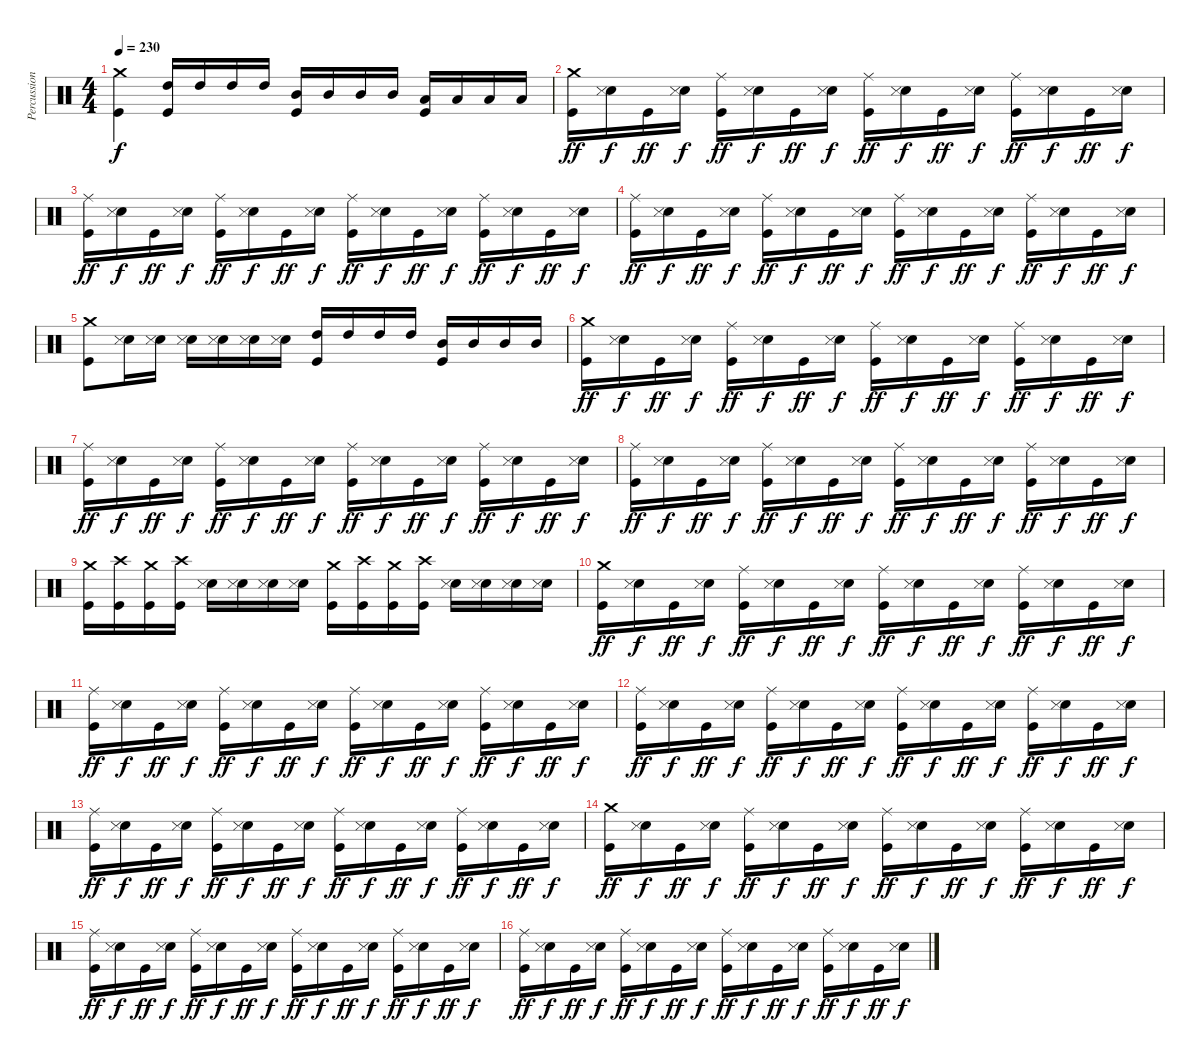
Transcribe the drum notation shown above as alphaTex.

\track ("Percussions" "Percussion") {instrument percussion}
\staff {score}
\articulation defaults
\ts (4 4)
\tempo 230
\clef neutral
\ks c
("Crash medium (hit)" "Kick (hit)").4{dy f} ("High Tom (hit)" "Kick (hit)").16 "High Tom (hit)".16 "High Tom (hit)".16 "High Tom (hit)".16 ("Mid Tom (hit)" "Kick (hit)").16 "Mid Tom (hit)".16 "Mid Tom (hit)".16 "Mid Tom (hit)".16 ("Low Tom (hit)" "Kick (hit)").16 "Low Tom (hit)".16 "Low Tom (hit)".16 "Low Tom (hit)".16 |
("Crash medium (hit)" "Kick (hit)").16{dy ff} ("Electric Snare (hit)" "Snare (side stick) 3").16{dy f} "Kick (hit)".16{dy ff} ("Electric Snare (hit)" "Snare (side stick) 3").16{dy f} ("Ride (middle)" "Kick (hit)").16{dy ff} ("Electric Snare (hit)" "Snare (side stick) 3").16{dy f} "Kick (hit)".16{dy ff} ("Electric Snare (hit)" "Snare (side stick) 3").16{dy f} ("Ride (middle)" "Kick (hit)").16{dy ff} ("Electric Snare (hit)" "Snare (side stick) 3").16{dy f} "Kick (hit)".16{dy ff} ("Electric Snare (hit)" "Snare (side stick) 3").16{dy f} ("Ride (middle)" "Kick (hit)").16{dy ff} ("Electric Snare (hit)" "Snare (side stick) 3").16{dy f} "Kick (hit)".16{dy ff} ("Electric Snare (hit)" "Snare (side stick) 3").16{dy f} |
("Ride (middle)" "Kick (hit)").16{dy ff} ("Electric Snare (hit)" "Snare (side stick) 3").16{dy f} "Kick (hit)".16{dy ff} ("Electric Snare (hit)" "Snare (side stick) 3").16{dy f} ("Ride (middle)" "Kick (hit)").16{dy ff} ("Electric Snare (hit)" "Snare (side stick) 3").16{dy f} "Kick (hit)".16{dy ff} ("Electric Snare (hit)" "Snare (side stick) 3").16{dy f} ("Ride (middle)" "Kick (hit)").16{dy ff} ("Electric Snare (hit)" "Snare (side stick) 3").16{dy f} "Kick (hit)".16{dy ff} ("Electric Snare (hit)" "Snare (side stick) 3").16{dy f} ("Ride (middle)" "Kick (hit)").16{dy ff} ("Electric Snare (hit)" "Snare (side stick) 3").16{dy f} "Kick (hit)".16{dy ff} ("Electric Snare (hit)" "Snare (side stick) 3").16{dy f} |
("Ride (middle)" "Kick (hit)").16{dy ff} ("Electric Snare (hit)" "Snare (side stick) 3").16{dy f} "Kick (hit)".16{dy ff} ("Electric Snare (hit)" "Snare (side stick) 3").16{dy f} ("Ride (middle)" "Kick (hit)").16{dy ff} ("Electric Snare (hit)" "Snare (side stick) 3").16{dy f} "Kick (hit)".16{dy ff} ("Electric Snare (hit)" "Snare (side stick) 3").16{dy f} ("Ride (middle)" "Kick (hit)").16{dy ff} ("Electric Snare (hit)" "Snare (side stick) 3").16{dy f} "Kick (hit)".16{dy ff} ("Electric Snare (hit)" "Snare (side stick) 3").16{dy f} ("Ride (middle)" "Kick (hit)").16{dy ff} ("Electric Snare (hit)" "Snare (side stick) 3").16{dy f} "Kick (hit)".16{dy ff} ("Electric Snare (hit)" "Snare (side stick) 3").16{dy f} |
("Crash medium (hit)" "Kick (hit)").8 ("Electric Snare (hit)" "Snare (side stick) 3").16 ("Electric Snare (hit)" "Snare (side stick) 3").16 ("Electric Snare (hit)" "Snare (side stick) 3").16 ("Electric Snare (hit)" "Snare (side stick) 3").16 ("Electric Snare (hit)" "Snare (side stick) 3").16 ("Electric Snare (hit)" "Snare (side stick) 3").16 ("High Tom (hit)" "Kick (hit)").16 "High Tom (hit)".16 "High Tom (hit)".16 "High Tom (hit)".16 ("Mid Tom (hit)" "Kick (hit)").16 "Mid Tom (hit)".16 "Mid Tom (hit)".16 "Mid Tom (hit)".16 |
("Crash medium (hit)" "Kick (hit)").16{dy ff} ("Electric Snare (hit)" "Snare (side stick) 3").16{dy f} "Kick (hit)".16{dy ff} ("Electric Snare (hit)" "Snare (side stick) 3").16{dy f} ("Ride (middle)" "Kick (hit)").16{dy ff} ("Electric Snare (hit)" "Snare (side stick) 3").16{dy f} "Kick (hit)".16{dy ff} ("Electric Snare (hit)" "Snare (side stick) 3").16{dy f} ("Ride (middle)" "Kick (hit)").16{dy ff} ("Electric Snare (hit)" "Snare (side stick) 3").16{dy f} "Kick (hit)".16{dy ff} ("Electric Snare (hit)" "Snare (side stick) 3").16{dy f} ("Ride (middle)" "Kick (hit)").16{dy ff} ("Electric Snare (hit)" "Snare (side stick) 3").16{dy f} "Kick (hit)".16{dy ff} ("Electric Snare (hit)" "Snare (side stick) 3").16{dy f} |
("Ride (middle)" "Kick (hit)").16{dy ff} ("Electric Snare (hit)" "Snare (side stick) 3").16{dy f} "Kick (hit)".16{dy ff} ("Electric Snare (hit)" "Snare (side stick) 3").16{dy f} ("Ride (middle)" "Kick (hit)").16{dy ff} ("Electric Snare (hit)" "Snare (side stick) 3").16{dy f} "Kick (hit)".16{dy ff} ("Electric Snare (hit)" "Snare (side stick) 3").16{dy f} ("Ride (middle)" "Kick (hit)").16{dy ff} ("Electric Snare (hit)" "Snare (side stick) 3").16{dy f} "Kick (hit)".16{dy ff} ("Electric Snare (hit)" "Snare (side stick) 3").16{dy f} ("Ride (middle)" "Kick (hit)").16{dy ff} ("Electric Snare (hit)" "Snare (side stick) 3").16{dy f} "Kick (hit)".16{dy ff} ("Electric Snare (hit)" "Snare (side stick) 3").16{dy f} |
("Ride (middle)" "Kick (hit)").16{dy ff} ("Electric Snare (hit)" "Snare (side stick) 3").16{dy f} "Kick (hit)".16{dy ff} ("Electric Snare (hit)" "Snare (side stick) 3").16{dy f} ("Ride (middle)" "Kick (hit)").16{dy ff} ("Electric Snare (hit)" "Snare (side stick) 3").16{dy f} "Kick (hit)".16{dy ff} ("Electric Snare (hit)" "Snare (side stick) 3").16{dy f} ("Ride (middle)" "Kick (hit)").16{dy ff} ("Electric Snare (hit)" "Snare (side stick) 3").16{dy f} "Kick (hit)".16{dy ff} ("Electric Snare (hit)" "Snare (side stick) 3").16{dy f} ("Ride (middle)" "Kick (hit)").16{dy ff} ("Electric Snare (hit)" "Snare (side stick) 3").16{dy f} "Kick (hit)".16{dy ff} ("Electric Snare (hit)" "Snare (side stick) 3").16{dy f} |
("Crash medium (hit)" "Kick (hit)").16 ("Crash high (hit)" "Kick (hit)").16 ("Crash medium (hit)" "Kick (hit)").16 ("Crash high (hit)" "Kick (hit)").16 ("Electric Snare (hit)" "Snare (side stick) 3").16 ("Electric Snare (hit)" "Snare (side stick) 3").16 ("Electric Snare (hit)" "Snare (side stick) 3").16 ("Electric Snare (hit)" "Snare (side stick) 3").16 ("Crash medium (hit)" "Kick (hit)").16 ("Crash high (hit)" "Kick (hit)").16 ("Crash medium (hit)" "Kick (hit)").16 ("Crash high (hit)" "Kick (hit)").16 ("Electric Snare (hit)" "Snare (side stick) 3").16 ("Electric Snare (hit)" "Snare (side stick) 3").16 ("Electric Snare (hit)" "Snare (side stick) 3").16 ("Electric Snare (hit)" "Snare (side stick) 3").16 |
("Crash medium (hit)" "Kick (hit)").16{dy ff} ("Electric Snare (hit)" "Snare (side stick) 3").16{dy f} "Kick (hit)".16{dy ff} ("Electric Snare (hit)" "Snare (side stick) 3").16{dy f} ("Ride (middle)" "Kick (hit)").16{dy ff} ("Electric Snare (hit)" "Snare (side stick) 3").16{dy f} "Kick (hit)".16{dy ff} ("Electric Snare (hit)" "Snare (side stick) 3").16{dy f} ("Ride (middle)" "Kick (hit)").16{dy ff} ("Electric Snare (hit)" "Snare (side stick) 3").16{dy f} "Kick (hit)".16{dy ff} ("Electric Snare (hit)" "Snare (side stick) 3").16{dy f} ("Ride (middle)" "Kick (hit)").16{dy ff} ("Electric Snare (hit)" "Snare (side stick) 3").16{dy f} "Kick (hit)".16{dy ff} ("Electric Snare (hit)" "Snare (side stick) 3").16{dy f} |
("Ride (middle)" "Kick (hit)").16{dy ff} ("Electric Snare (hit)" "Snare (side stick) 3").16{dy f} "Kick (hit)".16{dy ff} ("Electric Snare (hit)" "Snare (side stick) 3").16{dy f} ("Ride (middle)" "Kick (hit)").16{dy ff} ("Electric Snare (hit)" "Snare (side stick) 3").16{dy f} "Kick (hit)".16{dy ff} ("Electric Snare (hit)" "Snare (side stick) 3").16{dy f} ("Ride (middle)" "Kick (hit)").16{dy ff} ("Electric Snare (hit)" "Snare (side stick) 3").16{dy f} "Kick (hit)".16{dy ff} ("Electric Snare (hit)" "Snare (side stick) 3").16{dy f} ("Ride (middle)" "Kick (hit)").16{dy ff} ("Electric Snare (hit)" "Snare (side stick) 3").16{dy f} "Kick (hit)".16{dy ff} ("Electric Snare (hit)" "Snare (side stick) 3").16{dy f} |
("Ride (middle)" "Kick (hit)").16{dy ff} ("Electric Snare (hit)" "Snare (side stick) 3").16{dy f} "Kick (hit)".16{dy ff} ("Electric Snare (hit)" "Snare (side stick) 3").16{dy f} ("Ride (middle)" "Kick (hit)").16{dy ff} ("Electric Snare (hit)" "Snare (side stick) 3").16{dy f} "Kick (hit)".16{dy ff} ("Electric Snare (hit)" "Snare (side stick) 3").16{dy f} ("Ride (middle)" "Kick (hit)").16{dy ff} ("Electric Snare (hit)" "Snare (side stick) 3").16{dy f} "Kick (hit)".16{dy ff} ("Electric Snare (hit)" "Snare (side stick) 3").16{dy f} ("Ride (middle)" "Kick (hit)").16{dy ff} ("Electric Snare (hit)" "Snare (side stick) 3").16{dy f} "Kick (hit)".16{dy ff} ("Electric Snare (hit)" "Snare (side stick) 3").16{dy f} |
("Ride (middle)" "Kick (hit)").16{dy ff} ("Electric Snare (hit)" "Snare (side stick) 3").16{dy f} "Kick (hit)".16{dy ff} ("Electric Snare (hit)" "Snare (side stick) 3").16{dy f} ("Ride (middle)" "Kick (hit)").16{dy ff} ("Electric Snare (hit)" "Snare (side stick) 3").16{dy f} "Kick (hit)".16{dy ff} ("Electric Snare (hit)" "Snare (side stick) 3").16{dy f} ("Ride (middle)" "Kick (hit)").16{dy ff} ("Electric Snare (hit)" "Snare (side stick) 3").16{dy f} "Kick (hit)".16{dy ff} ("Electric Snare (hit)" "Snare (side stick) 3").16{dy f} ("Ride (middle)" "Kick (hit)").16{dy ff} ("Electric Snare (hit)" "Snare (side stick) 3").16{dy f} "Kick (hit)".16{dy ff} ("Electric Snare (hit)" "Snare (side stick) 3").16{dy f} |
("Crash medium (hit)" "Kick (hit)").16{dy ff} ("Electric Snare (hit)" "Snare (side stick) 3").16{dy f} "Kick (hit)".16{dy ff} ("Electric Snare (hit)" "Snare (side stick) 3").16{dy f} ("Ride (middle)" "Kick (hit)").16{dy ff} ("Electric Snare (hit)" "Snare (side stick) 3").16{dy f} "Kick (hit)".16{dy ff} ("Electric Snare (hit)" "Snare (side stick) 3").16{dy f} ("Ride (middle)" "Kick (hit)").16{dy ff} ("Electric Snare (hit)" "Snare (side stick) 3").16{dy f} "Kick (hit)".16{dy ff} ("Electric Snare (hit)" "Snare (side stick) 3").16{dy f} ("Ride (middle)" "Kick (hit)").16{dy ff} ("Electric Snare (hit)" "Snare (side stick) 3").16{dy f} "Kick (hit)".16{dy ff} ("Electric Snare (hit)" "Snare (side stick) 3").16{dy f} |
("Ride (middle)" "Kick (hit)").16{dy ff} ("Electric Snare (hit)" "Snare (side stick) 3").16{dy f} "Kick (hit)".16{dy ff} ("Electric Snare (hit)" "Snare (side stick) 3").16{dy f} ("Ride (middle)" "Kick (hit)").16{dy ff} ("Electric Snare (hit)" "Snare (side stick) 3").16{dy f} "Kick (hit)".16{dy ff} ("Electric Snare (hit)" "Snare (side stick) 3").16{dy f} ("Ride (middle)" "Kick (hit)").16{dy ff} ("Electric Snare (hit)" "Snare (side stick) 3").16{dy f} "Kick (hit)".16{dy ff} ("Electric Snare (hit)" "Snare (side stick) 3").16{dy f} ("Ride (middle)" "Kick (hit)").16{dy ff} ("Electric Snare (hit)" "Snare (side stick) 3").16{dy f} "Kick (hit)".16{dy ff} ("Electric Snare (hit)" "Snare (side stick) 3").16{dy f} |
("Ride (middle)" "Kick (hit)").16{dy ff} ("Electric Snare (hit)" "Snare (side stick) 3").16{dy f} "Kick (hit)".16{dy ff} ("Electric Snare (hit)" "Snare (side stick) 3").16{dy f} ("Ride (middle)" "Kick (hit)").16{dy ff} ("Electric Snare (hit)" "Snare (side stick) 3").16{dy f} "Kick (hit)".16{dy ff} ("Electric Snare (hit)" "Snare (side stick) 3").16{dy f} ("Ride (middle)" "Kick (hit)").16{dy ff} ("Electric Snare (hit)" "Snare (side stick) 3").16{dy f} "Kick (hit)".16{dy ff} ("Electric Snare (hit)" "Snare (side stick) 3").16{dy f} ("Ride (middle)" "Kick (hit)").16{dy ff} ("Electric Snare (hit)" "Snare (side stick) 3").16{dy f} "Kick (hit)".16{dy ff} ("Electric Snare (hit)" "Snare (side stick) 3").16{dy f}
